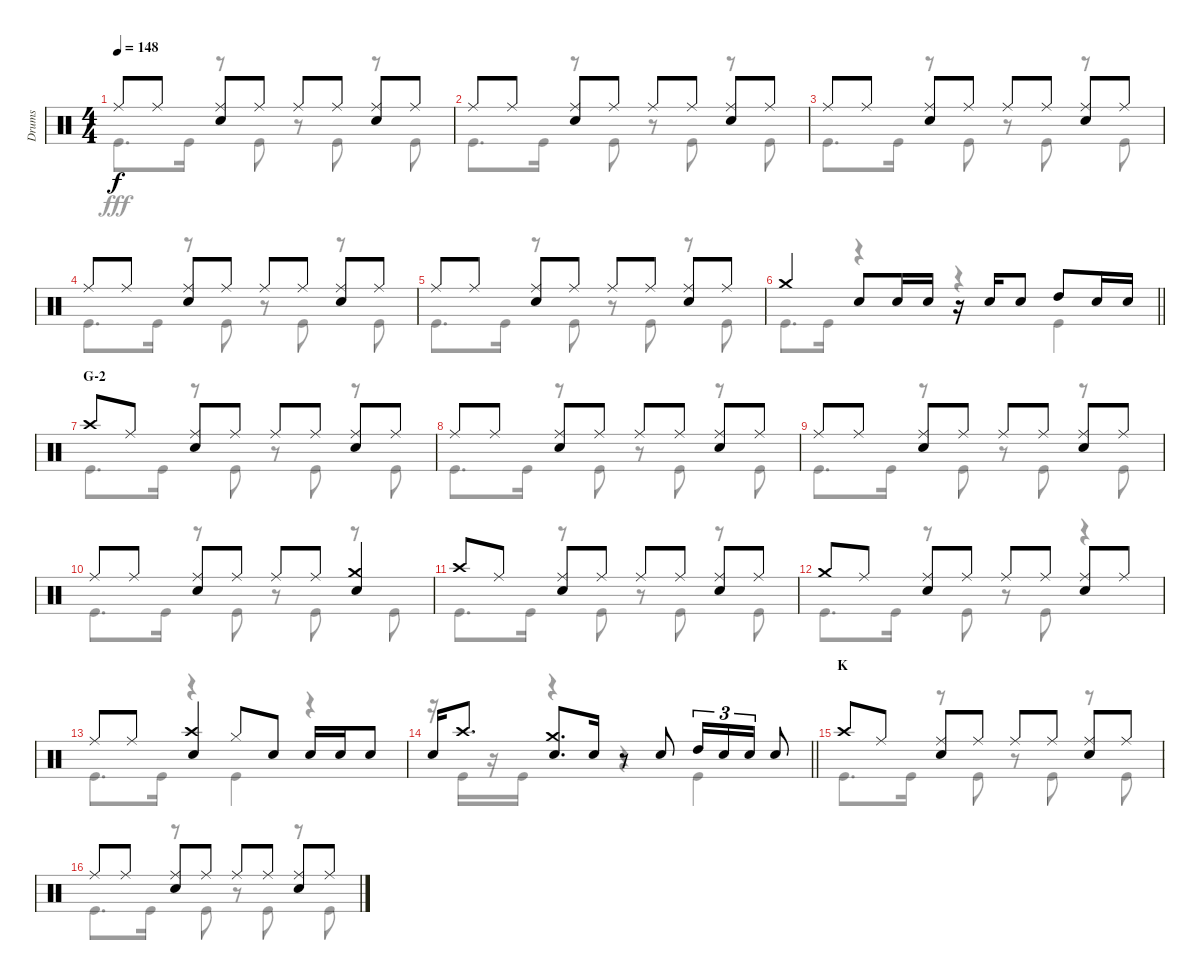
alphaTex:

\track ("Drums" "Drums") {instrument percussion}
\staff {score}
\articulation defaults
\voice
\ts (4 4)
\tempo 148
\clef neutral
\ks c "Ride (middle)".8{dy f} "Ride (middle)".8
("Ride (middle)" "Snare (hit) 2").8 "Ride (middle)".8 "Ride (middle)".8 "Ride (middle)".8 ("Ride (middle)" "Snare (hit) 2").8 "Ride (middle)".8 |
"Ride (middle)".8 "Ride (middle)".8 ("Ride (middle)" "Snare (hit) 2").8 "Ride (middle)".8 "Ride (middle)".8 "Ride (middle)".8 ("Ride (middle)" "Snare (hit) 2").8 "Ride (middle)".8 |
"Ride (middle)".8 "Ride (middle)".8 ("Ride (middle)" "Snare (hit) 2").8 "Ride (middle)".8 "Ride (middle)".8 "Ride (middle)".8 ("Ride (middle)" "Snare (hit) 2").8 "Ride (middle)".8 |
"Ride (middle)".8 "Ride (middle)".8 ("Ride (middle)" "Snare (hit) 2").8 "Ride (middle)".8 "Ride (middle)".8 "Ride (middle)".8 ("Ride (middle)" "Snare (hit) 2").8 "Ride (middle)".8 |
"Ride (middle)".8 "Ride (middle)".8 ("Ride (middle)" "Snare (hit) 2").8 "Ride (middle)".8 "Ride (middle)".8 "Ride (middle)".8 ("Ride (middle)" "Snare (hit) 2").8 "Ride (middle)".8 |
\barLineRight lightlight "Crash medium (hit)".4 "Snare (hit) 2".8 "Snare (hit) 2".16 "Snare (hit) 2".16
r.16 "Snare (hit) 2".16 "Snare (hit) 2".8 "High Tom (hit)".8 "Snare (hit) 2".16 "Snare (hit) 2".16 |
\section ("" "G-2")
"Crash high (hit)".8 "Ride (middle)".8 ("Ride (middle)" "Snare (hit) 2").8 "Ride (middle)".8 "Ride (middle)".8 "Ride (middle)".8 ("Ride (middle)" "Snare (hit) 2").8 "Ride (middle)".8 |
"Ride (middle)".8 "Ride (middle)".8 ("Ride (middle)" "Snare (hit) 2").8 "Ride (middle)".8 "Ride (middle)".8 "Ride (middle)".8 ("Ride (middle)" "Snare (hit) 2").8 "Ride (middle)".8 |
"Ride (middle)".8 "Ride (middle)".8 ("Ride (middle)" "Snare (hit) 2").8 "Ride (middle)".8 "Ride (middle)".8 "Ride (middle)".8 ("Ride (middle)" "Snare (hit) 2").8 "Ride (middle)".8 |
"Ride (middle)".8 "Ride (middle)".8 ("Ride (middle)" "Snare (hit) 2").8 "Ride (middle)".8 "Ride (middle)".8 "Ride (middle)".8 ("Crash medium (hit)" "Snare (hit) 2").4 |
"Crash high (hit)".8 "Ride (middle)".8 ("Ride (middle)" "Snare (hit) 2").8 "Ride (middle)".8 "Ride (middle)".8 "Ride (middle)".8 ("Ride (middle)" "Snare (hit) 2").8 "Ride (middle)".8 |
"Crash medium (hit)".8 "Ride (middle)".8 ("Ride (middle)" "Snare (hit) 2").8 "Ride (middle)".8 "Ride (middle)".8 "Ride (middle)".8 ("Ride (middle)" "Snare (hit) 2").8 "Ride (middle)".8 |
"Ride (middle)".8 "Ride (middle)".8 ("Crash high (hit)" "Snare (hit) 2").4 "Hi-Hat (closed)".8 "Snare (hit) 2".8 "Snare (hit) 2".16 "Snare (hit) 2".16 "Snare (hit) 2".8 |
\barLineRight lightlight "Snare (hit) 2".16 "Crash high (hit)".8{d}
("Crash medium (hit)" "Snare (hit) 2").8{d} "Snare (hit) 2".16 r.8 "Snare (hit) 2".8 "High Tom (hit)".16{tu (3 2)} "Snare (hit) 2".16{tu (3 2)} "Snare (hit) 2".16{tu (3 2)} "Snare (hit) 2".8 |
\section ("" "K")
"Crash high (hit)".8 "Ride (middle)".8 ("Ride (middle)" "Snare (hit) 2").8 "Ride (middle)".8 "Ride (middle)".8 "Ride (middle)".8 ("Ride (middle)" "Snare (hit) 2").8 "Ride (middle)".8 |
"Ride (middle)".8 "Ride (middle)".8 ("Ride (middle)" "Snare (hit) 2").8 "Ride (middle)".8 "Ride (middle)".8 "Ride (middle)".8 ("Ride (middle)" "Snare (hit) 2").8 "Ride (middle)".8
\voice
\clef neutral
\ottava regular
\simile none
\ks c "Kick (hit)".8{d dy fff} "Kick (hit)".16
r.8 "Kick (hit)".8 r.8 "Kick (hit)".8 r.8 "Kick (hit)".8 |
"Kick (hit)".8{d} "Kick (hit)".16 r.8 "Kick (hit)".8 r.8 "Kick (hit)".8 r.8 "Kick (hit)".8 |
"Kick (hit)".8{d} "Kick (hit)".16 r.8 "Kick (hit)".8 r.8 "Kick (hit)".8 r.8 "Kick (hit)".8 |
"Kick (hit)".8{d} "Kick (hit)".16 r.8 "Kick (hit)".8 r.8 "Kick (hit)".8 r.8 "Kick (hit)".8 |
"Kick (hit)".8{d} "Kick (hit)".16 r.8 "Kick (hit)".8 r.8 "Kick (hit)".8 r.8 "Kick (hit)".8 |
\barLineRight lightlight "Kick (hit)".8{d} "Kick (hit)".16
r.4 r.4 "Kick (hit)".4 |
"Kick (hit)".8{d} "Kick (hit)".16 r.8 "Kick (hit)".8 r.8 "Kick (hit)".8 r.8 "Kick (hit)".8 |
"Kick (hit)".8{d} "Kick (hit)".16 r.8 "Kick (hit)".8 r.8 "Kick (hit)".8 r.8 "Kick (hit)".8 |
"Kick (hit)".8{d} "Kick (hit)".16 r.8 "Kick (hit)".8 r.8 "Kick (hit)".8 r.8 "Kick (hit)".8 |
"Kick (hit)".8{d} "Kick (hit)".16 r.8 "Kick (hit)".8 r.8 "Kick (hit)".8 r.8 "Kick (hit)".8 |
"Kick (hit)".8{d} "Kick (hit)".16 r.8 "Kick (hit)".8 r.8 "Kick (hit)".8 r.8 "Kick (hit)".8 |
"Kick (hit)".8{d} "Kick (hit)".16 r.8 "Kick (hit)".8 r.8 "Kick (hit)".8 r.4 |
"Kick (hit)".8{d} "Kick (hit)".16 r.4 "Kick (hit)".4 r.4 |
\barLineRight lightlight
r.16 "Kick (hit)".16 r.16 "Kick (hit)".16 r.4 r.4 "Kick (hit)".4 |
"Kick (hit)".8{d} "Kick (hit)".16 r.8 "Kick (hit)".8 r.8 "Kick (hit)".8 r.8 "Kick (hit)".8 |
"Kick (hit)".8{d} "Kick (hit)".16 r.8 "Kick (hit)".8 r.8 "Kick (hit)".8 r.8 "Kick (hit)".8
